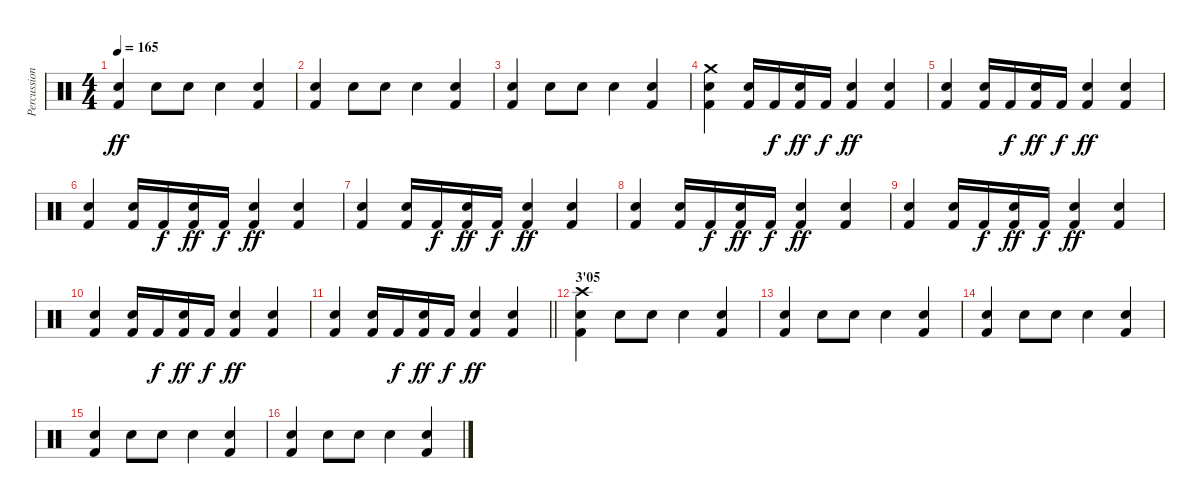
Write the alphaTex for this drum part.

\track ("Percussions" "Percussion") {instrument percussion}
\staff {score}
\articulation defaults
\ts (4 4)
\tempo 165
\clef neutral
\ks c
("Electric Snare (hit)" "Kick (hit) 2").4{dy ff} "Electric Snare (hit)".8 "Electric Snare (hit)".8 "Electric Snare (hit)".4 ("Electric Snare (hit)" "Kick (hit) 2").4 |
("Electric Snare (hit)" "Kick (hit) 2").4 "Electric Snare (hit)".8 "Electric Snare (hit)".8 "Electric Snare (hit)".4 ("Electric Snare (hit)" "Kick (hit) 2").4 |
("Electric Snare (hit)" "Kick (hit) 2").4 "Electric Snare (hit)".8 "Electric Snare (hit)".8 "Electric Snare (hit)".4 ("Electric Snare (hit)" "Kick (hit) 2").4 |
("Crash medium (hit)" "Electric Snare (hit)" "Kick (hit) 2").4 ("Electric Snare (hit)" "Kick (hit) 2").16 "Kick (hit) 2".16{dy f} ("Electric Snare (hit)" "Kick (hit) 2").16{dy ff} "Kick (hit) 2".16{dy f} ("Electric Snare (hit)" "Kick (hit) 2").4{dy ff} ("Electric Snare (hit)" "Kick (hit) 2").4 |
("Electric Snare (hit)" "Kick (hit) 2").4 ("Electric Snare (hit)" "Kick (hit) 2").16 "Kick (hit) 2".16{dy f} ("Electric Snare (hit)" "Kick (hit) 2").16{dy ff} "Kick (hit) 2".16{dy f} ("Electric Snare (hit)" "Kick (hit) 2").4{dy ff} ("Electric Snare (hit)" "Kick (hit) 2").4 |
("Electric Snare (hit)" "Kick (hit) 2").4 ("Electric Snare (hit)" "Kick (hit) 2").16 "Kick (hit) 2".16{dy f} ("Electric Snare (hit)" "Kick (hit) 2").16{dy ff} "Kick (hit) 2".16{dy f} ("Electric Snare (hit)" "Kick (hit) 2").4{dy ff} ("Electric Snare (hit)" "Kick (hit) 2").4 |
("Electric Snare (hit)" "Kick (hit) 2").4 ("Electric Snare (hit)" "Kick (hit) 2").16 "Kick (hit) 2".16{dy f} ("Electric Snare (hit)" "Kick (hit) 2").16{dy ff} "Kick (hit) 2".16{dy f} ("Electric Snare (hit)" "Kick (hit) 2").4{dy ff} ("Electric Snare (hit)" "Kick (hit) 2").4 |
("Electric Snare (hit)" "Kick (hit) 2").4 ("Electric Snare (hit)" "Kick (hit) 2").16 "Kick (hit) 2".16{dy f} ("Electric Snare (hit)" "Kick (hit) 2").16{dy ff} "Kick (hit) 2".16{dy f} ("Electric Snare (hit)" "Kick (hit) 2").4{dy ff} ("Electric Snare (hit)" "Kick (hit) 2").4 |
("Electric Snare (hit)" "Kick (hit) 2").4 ("Electric Snare (hit)" "Kick (hit) 2").16 "Kick (hit) 2".16{dy f} ("Electric Snare (hit)" "Kick (hit) 2").16{dy ff} "Kick (hit) 2".16{dy f} ("Electric Snare (hit)" "Kick (hit) 2").4{dy ff} ("Electric Snare (hit)" "Kick (hit) 2").4 |
("Electric Snare (hit)" "Kick (hit) 2").4 ("Electric Snare (hit)" "Kick (hit) 2").16 "Kick (hit) 2".16{dy f} ("Electric Snare (hit)" "Kick (hit) 2").16{dy ff} "Kick (hit) 2".16{dy f} ("Electric Snare (hit)" "Kick (hit) 2").4{dy ff} ("Electric Snare (hit)" "Kick (hit) 2").4 |
\barLineRight lightlight
("Electric Snare (hit)" "Kick (hit) 2").4 ("Electric Snare (hit)" "Kick (hit) 2").16 "Kick (hit) 2".16{dy f} ("Electric Snare (hit)" "Kick (hit) 2").16{dy ff} "Kick (hit) 2".16{dy f} ("Electric Snare (hit)" "Kick (hit) 2").4{dy ff} ("Electric Snare (hit)" "Kick (hit) 2").4 |
\section ("" "3'05")
("Crash high (hit)" "Electric Snare (hit)" "Kick (hit) 2").4 "Electric Snare (hit)".8 "Electric Snare (hit)".8 "Electric Snare (hit)".4 ("Electric Snare (hit)" "Kick (hit) 2").4 |
("Electric Snare (hit)" "Kick (hit) 2").4 "Electric Snare (hit)".8 "Electric Snare (hit)".8 "Electric Snare (hit)".4 ("Electric Snare (hit)" "Kick (hit) 2").4 |
("Electric Snare (hit)" "Kick (hit) 2").4 "Electric Snare (hit)".8 "Electric Snare (hit)".8 "Electric Snare (hit)".4 ("Electric Snare (hit)" "Kick (hit) 2").4 |
("Electric Snare (hit)" "Kick (hit) 2").4 "Electric Snare (hit)".8 "Electric Snare (hit)".8 "Electric Snare (hit)".4 ("Electric Snare (hit)" "Kick (hit) 2").4 |
("Electric Snare (hit)" "Kick (hit) 2").4 "Electric Snare (hit)".8 "Electric Snare (hit)".8 "Electric Snare (hit)".4 ("Electric Snare (hit)" "Kick (hit) 2").4
